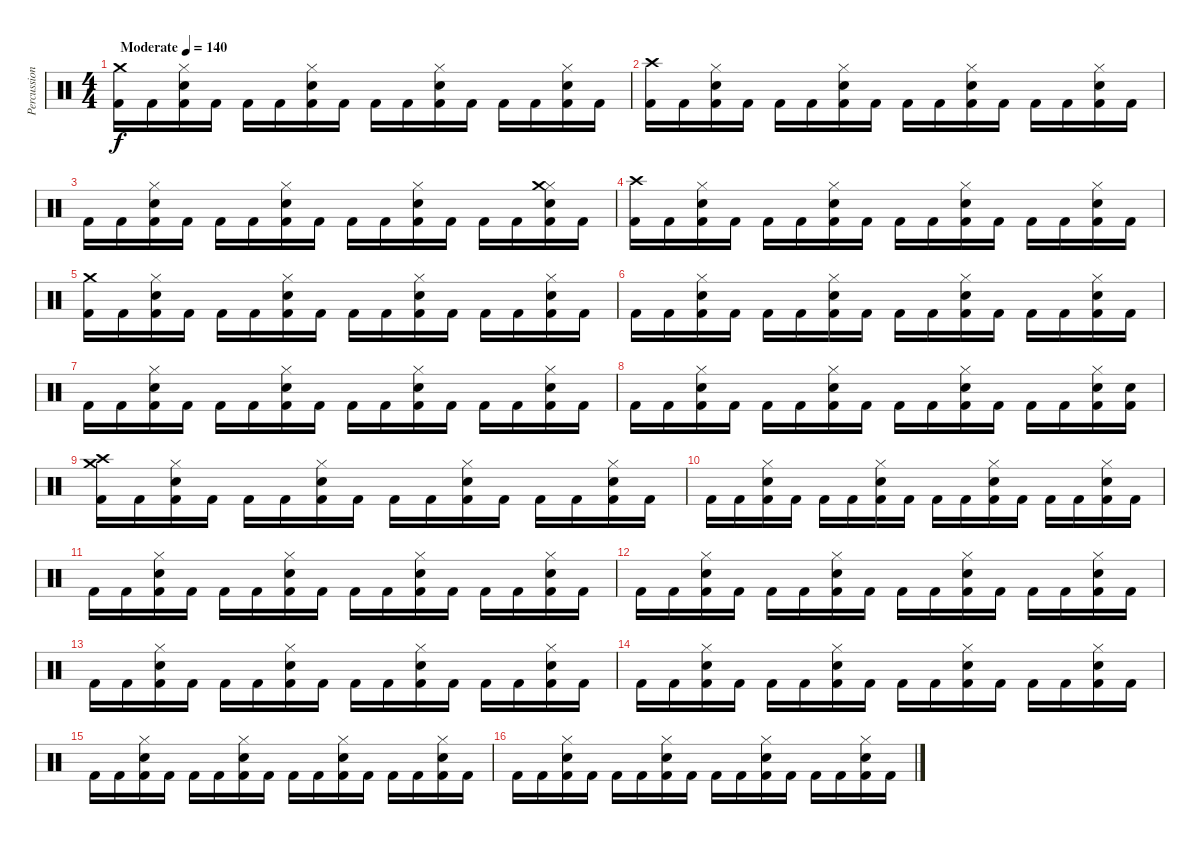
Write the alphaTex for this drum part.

\track ("Percussion" "Percussion") {instrument percussion}
\staff {score}
\articulation defaults
\ts (4 4)
\tempo (140 "Moderate")
\clef neutral
\ks c
("Kick (hit) 2" "Crash medium (hit)").16{dy f} "Kick (hit) 2".16 ("Kick (hit) 2" "Snare (hit) 2" "Hi-Hat (closed)").16 "Kick (hit) 2".16 "Kick (hit) 2".16 "Kick (hit) 2".16 ("Kick (hit) 2" "Snare (hit) 2" "Hi-Hat (closed)").16 "Kick (hit) 2".16 "Kick (hit) 2".16 "Kick (hit) 2".16 ("Kick (hit) 2" "Snare (hit) 2" "Hi-Hat (closed)").16 "Kick (hit) 2".16 "Kick (hit) 2".16 "Kick (hit) 2".16 ("Kick (hit) 2" "Snare (hit) 2" "Hi-Hat (closed)").16 "Kick (hit) 2".16 |
("Kick (hit) 2" "Crash high (hit)").16 "Kick (hit) 2".16 ("Kick (hit) 2" "Snare (hit) 2" "Hi-Hat (closed)").16 "Kick (hit) 2".16 "Kick (hit) 2".16 "Kick (hit) 2".16 ("Kick (hit) 2" "Snare (hit) 2" "Hi-Hat (closed)").16 "Kick (hit) 2".16 "Kick (hit) 2".16 "Kick (hit) 2".16 ("Kick (hit) 2" "Snare (hit) 2" "Hi-Hat (closed)").16 "Kick (hit) 2".16 "Kick (hit) 2".16 "Kick (hit) 2".16 ("Kick (hit) 2" "Snare (hit) 2" "Hi-Hat (closed)").16 "Kick (hit) 2".16 |
"Kick (hit) 2".16 "Kick (hit) 2".16 ("Kick (hit) 2" "Snare (hit) 2" "Hi-Hat (closed)").16 "Kick (hit) 2".16 "Kick (hit) 2".16 "Kick (hit) 2".16 ("Kick (hit) 2" "Snare (hit) 2" "Hi-Hat (closed)").16 "Kick (hit) 2".16 "Kick (hit) 2".16 "Kick (hit) 2".16 ("Kick (hit) 2" "Snare (hit) 2" "Hi-Hat (closed)").16 "Kick (hit) 2".16 "Kick (hit) 2".16 "Kick (hit) 2".16 ("Kick (hit) 2" "Snare (hit) 2" "Hi-Hat (closed)" "Crash medium (hit)").16 "Kick (hit) 2".16 |
("Kick (hit) 2" "Crash high (hit)").16 "Kick (hit) 2".16 ("Kick (hit) 2" "Snare (hit) 2" "Hi-Hat (closed)").16 "Kick (hit) 2".16 "Kick (hit) 2".16 "Kick (hit) 2".16 ("Kick (hit) 2" "Snare (hit) 2" "Hi-Hat (closed)").16 "Kick (hit) 2".16 "Kick (hit) 2".16 "Kick (hit) 2".16 ("Kick (hit) 2" "Snare (hit) 2" "Hi-Hat (closed)").16 "Kick (hit) 2".16 "Kick (hit) 2".16 "Kick (hit) 2".16 ("Kick (hit) 2" "Snare (hit) 2" "Hi-Hat (closed)").16 "Kick (hit) 2".16 |
("Kick (hit) 2" "Crash medium (hit)").16 "Kick (hit) 2".16 ("Kick (hit) 2" "Snare (hit) 2" "Hi-Hat (closed)").16 "Kick (hit) 2".16 "Kick (hit) 2".16 "Kick (hit) 2".16 ("Kick (hit) 2" "Snare (hit) 2" "Hi-Hat (closed)").16 "Kick (hit) 2".16 "Kick (hit) 2".16 "Kick (hit) 2".16 ("Kick (hit) 2" "Snare (hit) 2" "Hi-Hat (closed)").16 "Kick (hit) 2".16 "Kick (hit) 2".16 "Kick (hit) 2".16 ("Kick (hit) 2" "Snare (hit) 2" "Hi-Hat (closed)").16 "Kick (hit) 2".16 |
"Kick (hit) 2".16 "Kick (hit) 2".16 ("Kick (hit) 2" "Snare (hit) 2" "Hi-Hat (closed)").16 "Kick (hit) 2".16 "Kick (hit) 2".16 "Kick (hit) 2".16 ("Kick (hit) 2" "Snare (hit) 2" "Hi-Hat (closed)").16 "Kick (hit) 2".16 "Kick (hit) 2".16 "Kick (hit) 2".16 ("Kick (hit) 2" "Snare (hit) 2" "Hi-Hat (closed)").16 "Kick (hit) 2".16 "Kick (hit) 2".16 "Kick (hit) 2".16 ("Kick (hit) 2" "Snare (hit) 2" "Hi-Hat (closed)").16 "Kick (hit) 2".16 |
"Kick (hit) 2".16 "Kick (hit) 2".16 ("Kick (hit) 2" "Snare (hit) 2" "Hi-Hat (closed)").16 "Kick (hit) 2".16 "Kick (hit) 2".16 "Kick (hit) 2".16 ("Kick (hit) 2" "Snare (hit) 2" "Hi-Hat (closed)").16 "Kick (hit) 2".16 "Kick (hit) 2".16 "Kick (hit) 2".16 ("Kick (hit) 2" "Snare (hit) 2" "Hi-Hat (closed)").16 "Kick (hit) 2".16 "Kick (hit) 2".16 "Kick (hit) 2".16 ("Kick (hit) 2" "Snare (hit) 2" "Hi-Hat (closed)").16 "Kick (hit) 2".16 |
"Kick (hit) 2".16 "Kick (hit) 2".16 ("Kick (hit) 2" "Snare (hit) 2" "Hi-Hat (closed)").16 "Kick (hit) 2".16 "Kick (hit) 2".16 "Kick (hit) 2".16 ("Kick (hit) 2" "Snare (hit) 2" "Hi-Hat (closed)").16 "Kick (hit) 2".16 "Kick (hit) 2".16 "Kick (hit) 2".16 ("Kick (hit) 2" "Snare (hit) 2" "Hi-Hat (closed)").16 "Kick (hit) 2".16 "Kick (hit) 2".16 "Kick (hit) 2".16 ("Kick (hit) 2" "Snare (hit) 2" "Hi-Hat (closed)").16 ("Kick (hit) 2" "Snare (hit) 2").16 |
("Kick (hit) 2" "Crash medium (hit)" "Crash high (hit)").16 "Kick (hit) 2".16 ("Kick (hit) 2" "Snare (hit) 2" "Hi-Hat (closed)").16 "Kick (hit) 2".16 "Kick (hit) 2".16 "Kick (hit) 2".16 ("Kick (hit) 2" "Snare (hit) 2" "Hi-Hat (closed)").16 "Kick (hit) 2".16 "Kick (hit) 2".16 "Kick (hit) 2".16 ("Kick (hit) 2" "Snare (hit) 2" "Hi-Hat (closed)").16 "Kick (hit) 2".16 "Kick (hit) 2".16 "Kick (hit) 2".16 ("Kick (hit) 2" "Snare (hit) 2" "Hi-Hat (closed)").16 "Kick (hit) 2".16 |
"Kick (hit) 2".16 "Kick (hit) 2".16 ("Kick (hit) 2" "Snare (hit) 2" "Hi-Hat (closed)").16 "Kick (hit) 2".16 "Kick (hit) 2".16 "Kick (hit) 2".16 ("Kick (hit) 2" "Snare (hit) 2" "Hi-Hat (closed)").16 "Kick (hit) 2".16 "Kick (hit) 2".16 "Kick (hit) 2".16 ("Kick (hit) 2" "Snare (hit) 2" "Hi-Hat (closed)").16 "Kick (hit) 2".16 "Kick (hit) 2".16 "Kick (hit) 2".16 ("Kick (hit) 2" "Snare (hit) 2" "Hi-Hat (closed)").16 "Kick (hit) 2".16 |
"Kick (hit) 2".16 "Kick (hit) 2".16 ("Kick (hit) 2" "Snare (hit) 2" "Hi-Hat (closed)").16 "Kick (hit) 2".16 "Kick (hit) 2".16 "Kick (hit) 2".16 ("Kick (hit) 2" "Snare (hit) 2" "Hi-Hat (closed)").16 "Kick (hit) 2".16 "Kick (hit) 2".16 "Kick (hit) 2".16 ("Kick (hit) 2" "Snare (hit) 2" "Hi-Hat (closed)").16 "Kick (hit) 2".16 "Kick (hit) 2".16 "Kick (hit) 2".16 ("Kick (hit) 2" "Snare (hit) 2" "Hi-Hat (closed)").16 "Kick (hit) 2".16 |
"Kick (hit) 2".16 "Kick (hit) 2".16 ("Kick (hit) 2" "Snare (hit) 2" "Hi-Hat (closed)").16 "Kick (hit) 2".16 "Kick (hit) 2".16 "Kick (hit) 2".16 ("Kick (hit) 2" "Snare (hit) 2" "Hi-Hat (closed)").16 "Kick (hit) 2".16 "Kick (hit) 2".16 "Kick (hit) 2".16 ("Kick (hit) 2" "Snare (hit) 2" "Hi-Hat (closed)").16 "Kick (hit) 2".16 "Kick (hit) 2".16 "Kick (hit) 2".16 ("Kick (hit) 2" "Snare (hit) 2" "Hi-Hat (closed)").16 "Kick (hit) 2".16 |
"Kick (hit) 2".16 "Kick (hit) 2".16 ("Kick (hit) 2" "Snare (hit) 2" "Hi-Hat (closed)").16 "Kick (hit) 2".16 "Kick (hit) 2".16 "Kick (hit) 2".16 ("Kick (hit) 2" "Snare (hit) 2" "Hi-Hat (closed)").16 "Kick (hit) 2".16 "Kick (hit) 2".16 "Kick (hit) 2".16 ("Kick (hit) 2" "Snare (hit) 2" "Hi-Hat (closed)").16 "Kick (hit) 2".16 "Kick (hit) 2".16 "Kick (hit) 2".16 ("Kick (hit) 2" "Snare (hit) 2" "Hi-Hat (closed)").16 "Kick (hit) 2".16 |
"Kick (hit) 2".16 "Kick (hit) 2".16 ("Kick (hit) 2" "Snare (hit) 2" "Hi-Hat (closed)").16 "Kick (hit) 2".16 "Kick (hit) 2".16 "Kick (hit) 2".16 ("Kick (hit) 2" "Snare (hit) 2" "Hi-Hat (closed)").16 "Kick (hit) 2".16 "Kick (hit) 2".16 "Kick (hit) 2".16 ("Kick (hit) 2" "Snare (hit) 2" "Hi-Hat (closed)").16 "Kick (hit) 2".16 "Kick (hit) 2".16 "Kick (hit) 2".16 ("Kick (hit) 2" "Snare (hit) 2" "Hi-Hat (closed)").16 "Kick (hit) 2".16 |
"Kick (hit) 2".16 "Kick (hit) 2".16 ("Kick (hit) 2" "Snare (hit) 2" "Hi-Hat (closed)").16 "Kick (hit) 2".16 "Kick (hit) 2".16 "Kick (hit) 2".16 ("Kick (hit) 2" "Snare (hit) 2" "Hi-Hat (closed)").16 "Kick (hit) 2".16 "Kick (hit) 2".16 "Kick (hit) 2".16 ("Kick (hit) 2" "Snare (hit) 2" "Hi-Hat (closed)").16 "Kick (hit) 2".16 "Kick (hit) 2".16 "Kick (hit) 2".16 ("Kick (hit) 2" "Snare (hit) 2" "Hi-Hat (closed)").16 "Kick (hit) 2".16 |
"Kick (hit) 2".16 "Kick (hit) 2".16 ("Kick (hit) 2" "Snare (hit) 2" "Hi-Hat (closed)").16 "Kick (hit) 2".16 "Kick (hit) 2".16 "Kick (hit) 2".16 ("Kick (hit) 2" "Snare (hit) 2" "Hi-Hat (closed)").16 "Kick (hit) 2".16 "Kick (hit) 2".16 "Kick (hit) 2".16 ("Kick (hit) 2" "Snare (hit) 2" "Hi-Hat (closed)").16 "Kick (hit) 2".16 "Kick (hit) 2".16 "Kick (hit) 2".16 ("Kick (hit) 2" "Snare (hit) 2" "Hi-Hat (closed)").16 "Kick (hit) 2".16
